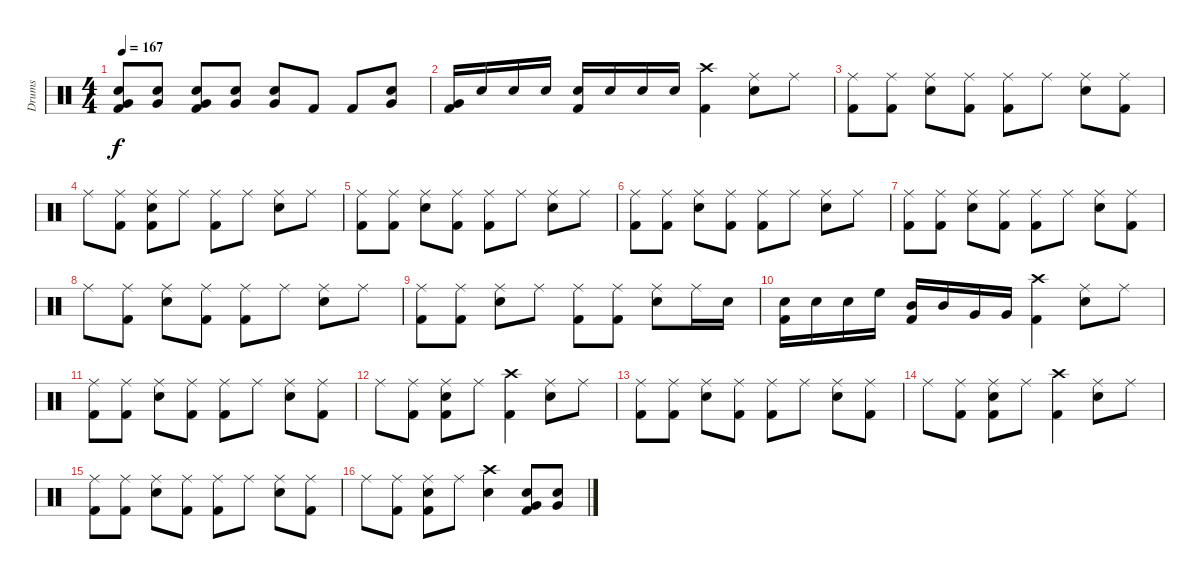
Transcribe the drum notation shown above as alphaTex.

\track ("Drums" "Drums") {instrument percussion}
\staff {score}
\articulation defaults
\ts (4 4)
\tempo 167
\clef neutral
\ks c
("Kick (hit) 2" "Snare (hit) 2" "Very Low Tom (hit)").8{dy f} ("Snare (hit) 2" "Very Low Tom (hit)").8 ("Kick (hit) 2" "Snare (hit) 2" "Very Low Tom (hit)").8 ("Snare (hit) 2" "Very Low Tom (hit)").8 ("Snare (hit) 2" "Very Low Tom (hit)").8 "Kick (hit) 2".8 "Kick (hit) 2".8 ("Snare (hit) 2" "Very Low Tom (hit)").8 |
("Kick (hit) 2" "Very Low Tom (hit)").16 "Snare (hit) 2".16 "Snare (hit) 2".16 "Snare (hit) 2".16 ("Kick (hit) 2" "Snare (hit) 2").16 "Snare (hit) 2".16 "Snare (hit) 2".16 "Snare (hit) 2".16 ("Kick (hit) 2" "Crash high (hit)").4 ("Ride (middle)" "Snare (hit) 2").8 "Ride (middle)".8 |
("Ride (middle)" "Kick (hit) 2").8 ("Ride (middle)" "Kick (hit) 2").8 ("Ride (middle)" "Snare (hit) 2").8 ("Ride (middle)" "Kick (hit) 2").8 ("Kick (hit) 2" "Ride (middle)").8 "Ride (middle)".8 ("Snare (hit) 2" "Ride (middle)").8 ("Kick (hit) 2" "Ride (middle)").8 |
"Ride (middle)".8 ("Kick (hit) 2" "Ride (middle)").8 ("Ride (middle)" "Kick (hit) 2" "Snare (hit) 2").8 "Ride (middle)".8 ("Kick (hit) 2" "Ride (middle)").8 "Ride (middle)".8 ("Snare (hit) 2" "Ride (middle)").8 "Ride (middle)".8 |
("Ride (middle)" "Kick (hit) 2").8 ("Kick (hit) 2" "Ride (middle)").8 ("Ride (middle)" "Snare (hit) 2").8 ("Kick (hit) 2" "Ride (middle)").8 ("Kick (hit) 2" "Ride (middle)").8 "Ride (middle)".8 ("Snare (hit) 2" "Ride (middle)").8 "Ride (middle)".8 |
("Ride (middle)" "Kick (hit) 2").8 ("Kick (hit) 2" "Ride (middle)").8 ("Ride (middle)" "Snare (hit) 2").8 ("Kick (hit) 2" "Ride (middle)").8 ("Kick (hit) 2" "Ride (middle)").8 "Ride (middle)".8 ("Snare (hit) 2" "Ride (middle)").8 "Ride (middle)".8 |
("Ride (middle)" "Kick (hit) 2").8 ("Kick (hit) 2" "Ride (middle)").8 ("Ride (middle)" "Snare (hit) 2").8 ("Kick (hit) 2" "Ride (middle)").8 ("Kick (hit) 2" "Ride (middle)").8 "Ride (middle)".8 ("Snare (hit) 2" "Ride (middle)").8 ("Ride (middle)" "Kick (hit) 2").8 |
"Ride (middle)".8 ("Kick (hit) 2" "Ride (middle)").8 ("Ride (middle)" "Snare (hit) 2").8 ("Kick (hit) 2" "Ride (middle)").8 ("Kick (hit) 2" "Ride (middle)").8 "Ride (middle)".8 ("Snare (hit) 2" "Ride (middle)").8 "Ride (middle)".8 |
("Ride (middle)" "Kick (hit) 2").8 ("Kick (hit) 2" "Ride (middle)").8 ("Ride (middle)" "Snare (hit) 2").8 "Ride (middle)".8 ("Ride (middle)" "Kick (hit) 2").8 ("Kick (hit) 2" "Ride (middle)").8 ("Ride (middle)" "Snare (hit) 2").8 "Ride (middle)".16 "Snare (hit) 2".16 |
("Kick (hit) 2" "Snare (hit) 2").16 "Snare (hit) 2".16 "Snare (hit) 2".16 "High Floor Tom (hit)".16 ("Kick (hit) 2" "Mid Tom (hit)").16 "Mid Tom (hit)".16 "Very Low Tom (hit)".16 "Very Low Tom (hit)".16 ("Kick (hit) 2" "Crash high (hit)").4 ("Ride (middle)" "Snare (hit) 2").8 "Ride (middle)".8 |
("Ride (middle)" "Kick (hit) 2").8 ("Ride (middle)" "Kick (hit) 2").8 ("Ride (middle)" "Snare (hit) 2").8 ("Ride (middle)" "Kick (hit) 2").8 ("Kick (hit) 2" "Ride (middle)").8 "Ride (middle)".8 ("Snare (hit) 2" "Ride (middle)").8 ("Kick (hit) 2" "Ride (middle)").8 |
"Ride (middle)".8 ("Kick (hit) 2" "Ride (middle)").8 ("Ride (middle)" "Kick (hit) 2" "Snare (hit) 2").8 "Ride (middle)".8 ("Kick (hit) 2" "Crash high (hit)").4 ("Ride (middle)" "Snare (hit) 2").8 "Ride (middle)".8 |
("Ride (middle)" "Kick (hit) 2").8 ("Ride (middle)" "Kick (hit) 2").8 ("Ride (middle)" "Snare (hit) 2").8 ("Ride (middle)" "Kick (hit) 2").8 ("Kick (hit) 2" "Ride (middle)").8 "Ride (middle)".8 ("Snare (hit) 2" "Ride (middle)").8 ("Kick (hit) 2" "Ride (middle)").8 |
"Ride (middle)".8 ("Kick (hit) 2" "Ride (middle)").8 ("Ride (middle)" "Kick (hit) 2" "Snare (hit) 2").8 "Ride (middle)".8 ("Kick (hit) 2" "Crash high (hit)").4 ("Ride (middle)" "Snare (hit) 2").8 "Ride (middle)".8 |
("Ride (middle)" "Kick (hit) 2").8 ("Ride (middle)" "Kick (hit) 2").8 ("Ride (middle)" "Snare (hit) 2").8 ("Ride (middle)" "Kick (hit) 2").8 ("Kick (hit) 2" "Ride (middle)").8 "Ride (middle)".8 ("Snare (hit) 2" "Ride (middle)").8 ("Kick (hit) 2" "Ride (middle)").8 |
"Ride (middle)".8 ("Kick (hit) 2" "Ride (middle)").8 ("Ride (middle)" "Kick (hit) 2" "Snare (hit) 2").8 "Ride (middle)".8 ("Crash high (hit)" "Snare (hit) 2").4 ("Kick (hit) 2" "Snare (hit) 2" "Very Low Tom (hit)").8 ("Snare (hit) 2" "Very Low Tom (hit)").8
